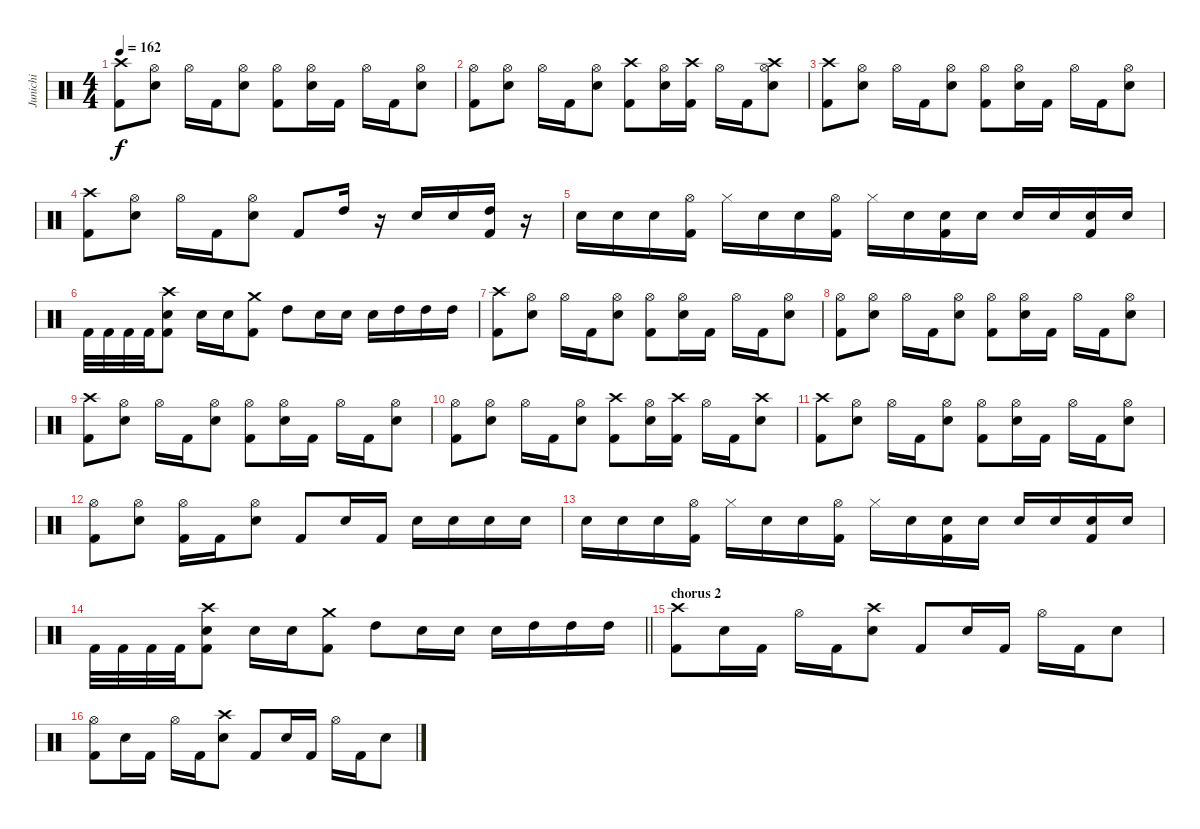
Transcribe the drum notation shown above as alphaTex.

\track ("Junichi" "Junichi") {instrument percussion}
\staff {score}
\articulation defaults
\ts (4 4)
\tempo 162
\clef neutral
\ks c
("Crash high (hit)" "Kick (hit) 2").8{dy f} ("Hi-Hat (open)" "Electric Snare (hit)").8 "Hi-Hat (open)".16 "Kick (hit) 2".16 ("Hi-Hat (open)" "Electric Snare (hit)").8 ("Hi-Hat (open)" "Kick (hit) 2").8 ("Hi-Hat (open)" "Electric Snare (hit)").16 "Kick (hit) 2".16 "Hi-Hat (open)".16 "Kick (hit) 2".16 ("Hi-Hat (open)" "Electric Snare (hit)").8 |
("Hi-Hat (open)" "Kick (hit) 2").8 ("Hi-Hat (open)" "Electric Snare (hit)").8 "Hi-Hat (open)".16 "Kick (hit) 2".16 ("Hi-Hat (open)" "Electric Snare (hit)").8 ("Crash high (hit)" "Kick (hit) 2").8 ("Hi-Hat (open)" "Electric Snare (hit)").16 ("Crash high (hit)" "Kick (hit) 2").16 "Hi-Hat (open)".16 "Kick (hit) 2".16 ("Crash high (hit)" "Hi-Hat (open)" "Electric Snare (hit)").8 |
("Crash high (hit)" "Kick (hit) 2").8 ("Hi-Hat (open)" "Electric Snare (hit)").8 "Hi-Hat (open)".16 "Kick (hit) 2".16 ("Hi-Hat (open)" "Electric Snare (hit)").8 ("Hi-Hat (open)" "Kick (hit) 2").8 ("Hi-Hat (open)" "Electric Snare (hit)").16 "Kick (hit) 2".16 "Hi-Hat (open)".16 "Kick (hit) 2".16 ("Hi-Hat (open)" "Electric Snare (hit)").8 |
("Crash high (hit)" "Kick (hit) 2").8 ("Hi-Hat (open)" "Electric Snare (hit)").8 "Hi-Hat (open)".16 "Kick (hit) 2".16 ("Hi-Hat (open)" "Electric Snare (hit)").8 "Kick (hit) 2".8 "High Tom (hit)".16 r.16 "Electric Snare (hit)".16 "Electric Snare (hit)".16 ("High Tom (hit)" "Kick (hit) 2").16 r.16 |
"Electric Snare (hit)".16 "Electric Snare (hit)".16 "Electric Snare (hit)".16 ("Hi-Hat (open)" "Kick (hit) 2").16 "Hi-Hat (closed)".16 "Electric Snare (hit)".16 "Electric Snare (hit)".16 ("Hi-Hat (open)" "Kick (hit) 2").16 "Hi-Hat (closed)".16 "Electric Snare (hit)".16 ("Electric Snare (hit)" "Kick (hit) 2").16 "Electric Snare (hit)".16 "Electric Snare (hit)".16 "Electric Snare (hit)".16 ("Electric Snare (hit)" "Kick (hit) 2").16 "Electric Snare (hit)".16 |
"Kick (hit) 2".32 "Kick (hit) 2".32 "Kick (hit) 2".32 "Kick (hit) 2".32 ("Crash high (hit)" "Electric Snare (hit)" "Kick (hit) 2").8 "Electric Snare (hit)".16 "Electric Snare (hit)".16 ("Crash medium (hit)" "Kick (hit) 2").8 "High Tom (hit)".8 "Electric Snare (hit)".16 "Electric Snare (hit)".16 "Electric Snare (hit)".16 "High Tom (hit)".16 "High Tom (hit)".16 "High Tom (hit)".16 |
("Crash high (hit)" "Kick (hit) 2").8 ("Hi-Hat (open)" "Electric Snare (hit)").8 "Hi-Hat (open)".16 "Kick (hit) 2".16 ("Hi-Hat (open)" "Electric Snare (hit)").8 ("Hi-Hat (open)" "Kick (hit) 2").8 ("Hi-Hat (open)" "Electric Snare (hit)").16 "Kick (hit) 2".16 "Hi-Hat (open)".16 "Kick (hit) 2".16 ("Hi-Hat (open)" "Electric Snare (hit)").8 |
("Hi-Hat (open)" "Kick (hit) 2").8 ("Hi-Hat (open)" "Electric Snare (hit)").8 "Hi-Hat (open)".16 "Kick (hit) 2".16 ("Hi-Hat (open)" "Electric Snare (hit)").8 ("Hi-Hat (open)" "Kick (hit) 2").8 ("Hi-Hat (open)" "Electric Snare (hit)").16 "Kick (hit) 2".16 "Hi-Hat (open)".16 "Kick (hit) 2".16 ("Hi-Hat (open)" "Electric Snare (hit)").8 |
("Crash high (hit)" "Kick (hit) 2").8 ("Hi-Hat (open)" "Electric Snare (hit)").8 "Hi-Hat (open)".16 "Kick (hit) 2".16 ("Hi-Hat (open)" "Electric Snare (hit)").8 ("Hi-Hat (open)" "Kick (hit) 2").8 ("Hi-Hat (open)" "Electric Snare (hit)").16 "Kick (hit) 2".16 "Hi-Hat (open)".16 "Kick (hit) 2".16 ("Hi-Hat (open)" "Electric Snare (hit)").8 |
("Hi-Hat (open)" "Kick (hit) 2").8 ("Hi-Hat (open)" "Electric Snare (hit)").8 "Hi-Hat (open)".16 "Kick (hit) 2".16 ("Hi-Hat (open)" "Electric Snare (hit)").8 ("Crash high (hit)" "Kick (hit) 2").8 ("Hi-Hat (open)" "Electric Snare (hit)").16 ("Crash high (hit)" "Kick (hit) 2").16 "Hi-Hat (open)".16 "Kick (hit) 2".16 ("Crash high (hit)" "Electric Snare (hit)").8 |
("Crash high (hit)" "Kick (hit) 2").8 ("Hi-Hat (open)" "Electric Snare (hit)").8 "Hi-Hat (open)".16 "Kick (hit) 2".16 ("Hi-Hat (open)" "Electric Snare (hit)").8 ("Hi-Hat (open)" "Kick (hit) 2").8 ("Hi-Hat (open)" "Electric Snare (hit)").16 "Kick (hit) 2".16 "Hi-Hat (open)".16 "Kick (hit) 2".16 ("Hi-Hat (open)" "Electric Snare (hit)").8 |
("Hi-Hat (open)" "Kick (hit) 2").8 ("Hi-Hat (open)" "Electric Snare (hit)").8 ("Hi-Hat (open)" "Kick (hit) 2").16 "Kick (hit) 2".16 ("Hi-Hat (open)" "Electric Snare (hit)").8 "Kick (hit) 2".8 "Electric Snare (hit)".16 "Kick (hit) 2".16 "Electric Snare (hit)".16 "Electric Snare (hit)".16 "Electric Snare (hit)".16 "Electric Snare (hit)".16 |
"Electric Snare (hit)".16 "Electric Snare (hit)".16 "Electric Snare (hit)".16 ("Hi-Hat (open)" "Kick (hit) 2").16 "Hi-Hat (closed)".16 "Electric Snare (hit)".16 "Electric Snare (hit)".16 ("Hi-Hat (open)" "Kick (hit) 2").16 "Hi-Hat (closed)".16 "Electric Snare (hit)".16 ("Electric Snare (hit)" "Kick (hit) 2").16 "Electric Snare (hit)".16 "Electric Snare (hit)".16 "Electric Snare (hit)".16 ("Electric Snare (hit)" "Kick (hit) 2").16 "Electric Snare (hit)".16 |
\barLineRight lightlight "Kick (hit) 2".32 "Kick (hit) 2".32 "Kick (hit) 2".32 "Kick (hit) 2".32
("Crash high (hit)" "Electric Snare (hit)" "Kick (hit) 2").8 "Electric Snare (hit)".16 "Electric Snare (hit)".16 ("Crash medium (hit)" "Kick (hit) 2").8 "High Tom (hit)".8 "Electric Snare (hit)".16 "Electric Snare (hit)".16 "Electric Snare (hit)".16 "High Tom (hit)".16 "High Tom (hit)".16 "High Tom (hit)".16 |
\section ("" "chorus 2")
("Crash high (hit)" "Kick (hit) 2").8 "Electric Snare (hit)".16 "Kick (hit) 2".16 "Hi-Hat (open)".16 "Kick (hit) 2".16 ("Crash high (hit)" "Electric Snare (hit)").8 "Kick (hit) 2".8 "Electric Snare (hit)".16 "Kick (hit) 2".16 "Hi-Hat (open)".16 "Kick (hit) 2".16 "Electric Snare (hit)".8 |
("Hi-Hat (open)" "Kick (hit) 2").8 "Electric Snare (hit)".16 "Kick (hit) 2".16 "Hi-Hat (open)".16 "Kick (hit) 2".16 ("Crash high (hit)" "Electric Snare (hit)").8 "Kick (hit) 2".8 "Electric Snare (hit)".16 "Kick (hit) 2".16 "Hi-Hat (open)".16 "Kick (hit) 2".16 "Electric Snare (hit)".8
